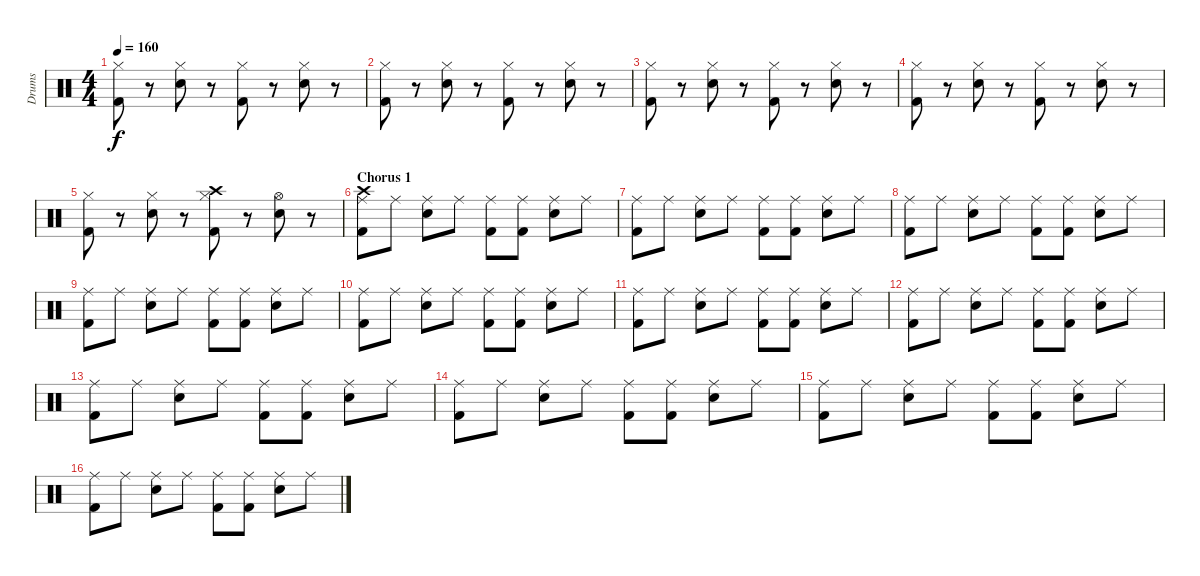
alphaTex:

\track ("Drums" "Drums") {instrument percussion}
\staff {score}
\articulation defaults
\ts (4 4)
\tempo 160
\clef neutral
\ks c
("Hi-Hat (closed)" "Kick (hit) 2").8{dy f} r.8 ("Hi-Hat (closed)" "Electric Snare (hit)").8 r.8 ("Hi-Hat (closed)" "Kick (hit) 2").8 r.8 ("Hi-Hat (closed)" "Electric Snare (hit)").8 r.8 |
("Hi-Hat (closed)" "Kick (hit) 2").8 r.8 ("Hi-Hat (closed)" "Electric Snare (hit)").8 r.8 ("Hi-Hat (closed)" "Kick (hit) 2").8 r.8 ("Hi-Hat (closed)" "Electric Snare (hit)").8 r.8 |
("Hi-Hat (closed)" "Kick (hit) 2").8 r.8 ("Hi-Hat (closed)" "Electric Snare (hit)").8 r.8 ("Hi-Hat (closed)" "Kick (hit) 2").8 r.8 ("Hi-Hat (closed)" "Electric Snare (hit)").8 r.8 |
("Hi-Hat (closed)" "Kick (hit) 2").8 r.8 ("Hi-Hat (closed)" "Electric Snare (hit)").8 r.8 ("Hi-Hat (closed)" "Kick (hit) 2").8 r.8 ("Hi-Hat (closed)" "Electric Snare (hit)").8 r.8 |
("Hi-Hat (closed)" "Kick (hit) 2").8 r.8 ("Hi-Hat (closed)" "Electric Snare (hit)").8 r.8 ("Hi-Hat (closed)" "Kick (hit) 2" "Crash high (hit)").8 r.8 ("Hi-Hat (open)" "Electric Snare (hit)").8 r.8 |
\section ("" "Chorus 1")
("Ride (middle)" "Kick (hit) 2" "Crash high (hit)").8 "Ride (middle)".8 ("Ride (middle)" "Electric Snare (hit)").8 "Ride (middle)".8 ("Ride (middle)" "Kick (hit) 2").8 ("Ride (middle)" "Kick (hit) 2").8 ("Ride (middle)" "Electric Snare (hit)").8 "Ride (middle)".8 |
("Ride (middle)" "Kick (hit) 2").8 "Ride (middle)".8 ("Ride (middle)" "Electric Snare (hit)").8 "Ride (middle)".8 ("Ride (middle)" "Kick (hit) 2").8 ("Ride (middle)" "Kick (hit) 2").8 ("Ride (middle)" "Electric Snare (hit)").8 "Ride (middle)".8 |
("Ride (middle)" "Kick (hit) 2").8 "Ride (middle)".8 ("Ride (middle)" "Electric Snare (hit)").8 "Ride (middle)".8 ("Ride (middle)" "Kick (hit) 2").8 ("Ride (middle)" "Kick (hit) 2").8 ("Ride (middle)" "Electric Snare (hit)").8 "Ride (middle)".8 |
("Ride (middle)" "Kick (hit) 2").8 "Ride (middle)".8 ("Ride (middle)" "Electric Snare (hit)").8 "Ride (middle)".8 ("Ride (middle)" "Kick (hit) 2").8 ("Ride (middle)" "Kick (hit) 2").8 ("Ride (middle)" "Electric Snare (hit)").8 "Ride (middle)".8 |
("Ride (middle)" "Kick (hit) 2").8 "Ride (middle)".8 ("Ride (middle)" "Electric Snare (hit)").8 "Ride (middle)".8 ("Ride (middle)" "Kick (hit) 2").8 ("Ride (middle)" "Kick (hit) 2").8 ("Ride (middle)" "Electric Snare (hit)").8 "Ride (middle)".8 |
("Ride (middle)" "Kick (hit) 2").8 "Ride (middle)".8 ("Ride (middle)" "Electric Snare (hit)").8 "Ride (middle)".8 ("Ride (middle)" "Kick (hit) 2").8 ("Ride (middle)" "Kick (hit) 2").8 ("Ride (middle)" "Electric Snare (hit)").8 "Ride (middle)".8 |
("Ride (middle)" "Kick (hit) 2").8 "Ride (middle)".8 ("Ride (middle)" "Electric Snare (hit)").8 "Ride (middle)".8 ("Ride (middle)" "Kick (hit) 2").8 ("Ride (middle)" "Kick (hit) 2").8 ("Ride (middle)" "Electric Snare (hit)").8 "Ride (middle)".8 |
("Ride (middle)" "Kick (hit) 2").8 "Ride (middle)".8 ("Ride (middle)" "Electric Snare (hit)").8 "Ride (middle)".8 ("Ride (middle)" "Kick (hit) 2").8 ("Ride (middle)" "Kick (hit) 2").8 ("Ride (middle)" "Electric Snare (hit)").8 "Ride (middle)".8 |
("Ride (middle)" "Kick (hit) 2").8 "Ride (middle)".8 ("Ride (middle)" "Electric Snare (hit)").8 "Ride (middle)".8 ("Ride (middle)" "Kick (hit) 2").8 ("Ride (middle)" "Kick (hit) 2").8 ("Ride (middle)" "Electric Snare (hit)").8 "Ride (middle)".8 |
("Ride (middle)" "Kick (hit) 2").8 "Ride (middle)".8 ("Ride (middle)" "Electric Snare (hit)").8 "Ride (middle)".8 ("Ride (middle)" "Kick (hit) 2").8 ("Ride (middle)" "Kick (hit) 2").8 ("Ride (middle)" "Electric Snare (hit)").8 "Ride (middle)".8 |
("Ride (middle)" "Kick (hit) 2").8 "Ride (middle)".8 ("Ride (middle)" "Electric Snare (hit)").8 "Ride (middle)".8 ("Ride (middle)" "Kick (hit) 2").8 ("Ride (middle)" "Kick (hit) 2").8 ("Ride (middle)" "Electric Snare (hit)").8 "Ride (middle)".8
